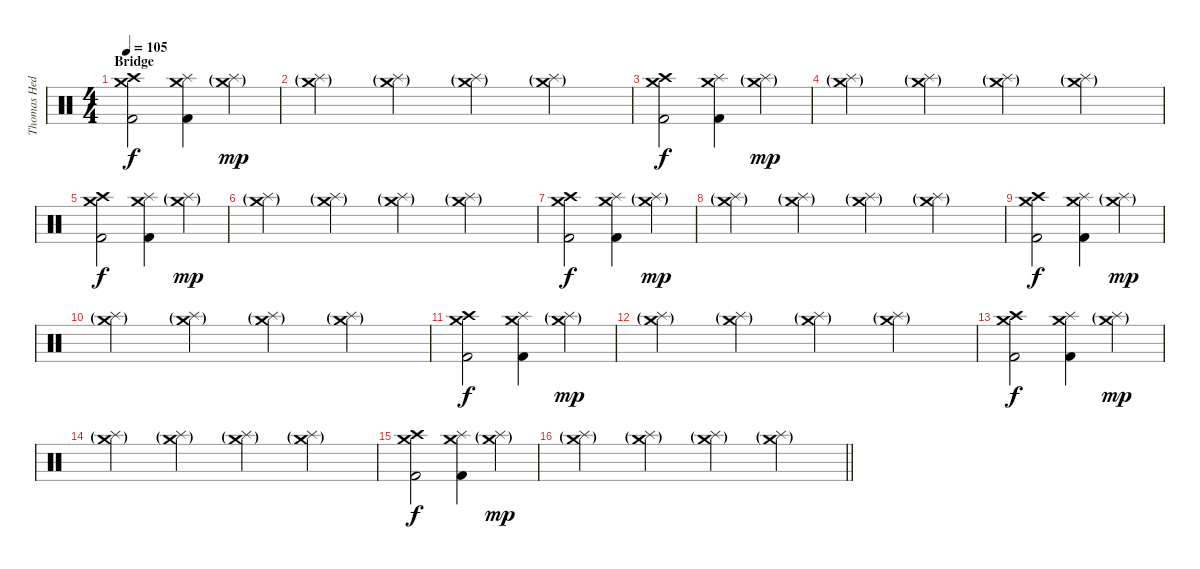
\track ("Thomas Hedlund" "Thomas Hed") {instrument percussion}
\staff {score}
\articulation defaults
\ts (4 4)
\section ("" "Bridge")
\tempo 105
\clef neutral
\ks c
("Crash medium (hit)" "Crash high (hit)" "Kick (hit) 2").2{dy f} ("Splash (hit)" "Crash medium (hit)" "Kick (hit) 2").4 ("Splash (hit)"{g} "Crash medium (hit)"{g}).4{dy mp} |
("Splash (hit)"{g} "Crash medium (hit)"{g}).4 ("Splash (hit)"{g} "Crash medium (hit)"{g}).4 ("Splash (hit)"{g} "Crash medium (hit)"{g}).4 ("Splash (hit)"{g} "Crash medium (hit)"{g}).4 |
("Crash medium (hit)" "Crash high (hit)" "Kick (hit) 2").2{dy f} ("Splash (hit)" "Crash medium (hit)" "Kick (hit) 2").4 ("Splash (hit)"{g} "Crash medium (hit)"{g}).4{dy mp} |
("Splash (hit)"{g} "Crash medium (hit)"{g}).4 ("Splash (hit)"{g} "Crash medium (hit)"{g}).4 ("Splash (hit)"{g} "Crash medium (hit)"{g}).4 ("Splash (hit)"{g} "Crash medium (hit)"{g}).4 |
("Crash medium (hit)" "Crash high (hit)" "Kick (hit) 2").2{dy f} ("Splash (hit)" "Crash medium (hit)" "Kick (hit) 2").4 ("Splash (hit)"{g} "Crash medium (hit)"{g}).4{dy mp} |
("Splash (hit)"{g} "Crash medium (hit)"{g}).4 ("Splash (hit)"{g} "Crash medium (hit)"{g}).4 ("Splash (hit)"{g} "Crash medium (hit)"{g}).4 ("Splash (hit)"{g} "Crash medium (hit)"{g}).4 |
("Crash medium (hit)" "Crash high (hit)" "Kick (hit) 2").2{dy f} ("Splash (hit)" "Crash medium (hit)" "Kick (hit) 2").4 ("Splash (hit)"{g} "Crash medium (hit)"{g}).4{dy mp} |
("Splash (hit)"{g} "Crash medium (hit)"{g}).4 ("Splash (hit)"{g} "Crash medium (hit)"{g}).4 ("Splash (hit)"{g} "Crash medium (hit)"{g}).4 ("Splash (hit)"{g} "Crash medium (hit)"{g}).4 |
("Crash medium (hit)" "Crash high (hit)" "Kick (hit) 2").2{dy f} ("Splash (hit)" "Crash medium (hit)" "Kick (hit) 2").4 ("Splash (hit)"{g} "Crash medium (hit)"{g}).4{dy mp} |
("Splash (hit)"{g} "Crash medium (hit)"{g}).4 ("Splash (hit)"{g} "Crash medium (hit)"{g}).4 ("Splash (hit)"{g} "Crash medium (hit)"{g}).4 ("Splash (hit)"{g} "Crash medium (hit)"{g}).4 |
("Crash medium (hit)" "Crash high (hit)" "Kick (hit) 2").2{dy f} ("Splash (hit)" "Crash medium (hit)" "Kick (hit) 2").4 ("Splash (hit)"{g} "Crash medium (hit)"{g}).4{dy mp} |
("Splash (hit)"{g} "Crash medium (hit)"{g}).4 ("Splash (hit)"{g} "Crash medium (hit)"{g}).4 ("Splash (hit)"{g} "Crash medium (hit)"{g}).4 ("Splash (hit)"{g} "Crash medium (hit)"{g}).4 |
("Crash medium (hit)" "Crash high (hit)" "Kick (hit) 2").2{dy f} ("Splash (hit)" "Crash medium (hit)" "Kick (hit) 2").4 ("Splash (hit)"{g} "Crash medium (hit)"{g}).4{dy mp} |
("Splash (hit)"{g} "Crash medium (hit)"{g}).4 ("Splash (hit)"{g} "Crash medium (hit)"{g}).4 ("Splash (hit)"{g} "Crash medium (hit)"{g}).4 ("Splash (hit)"{g} "Crash medium (hit)"{g}).4 |
("Crash medium (hit)" "Crash high (hit)" "Kick (hit) 2").2{dy f} ("Splash (hit)" "Crash medium (hit)" "Kick (hit) 2").4 ("Splash (hit)"{g} "Crash medium (hit)"{g}).4{dy mp} |
\barLineRight lightlight
("Splash (hit)"{g} "Crash medium (hit)"{g}).4 ("Splash (hit)"{g} "Crash medium (hit)"{g}).4 ("Splash (hit)"{g} "Crash medium (hit)"{g}).4 ("Splash (hit)"{g} "Crash medium (hit)"{g}).4
